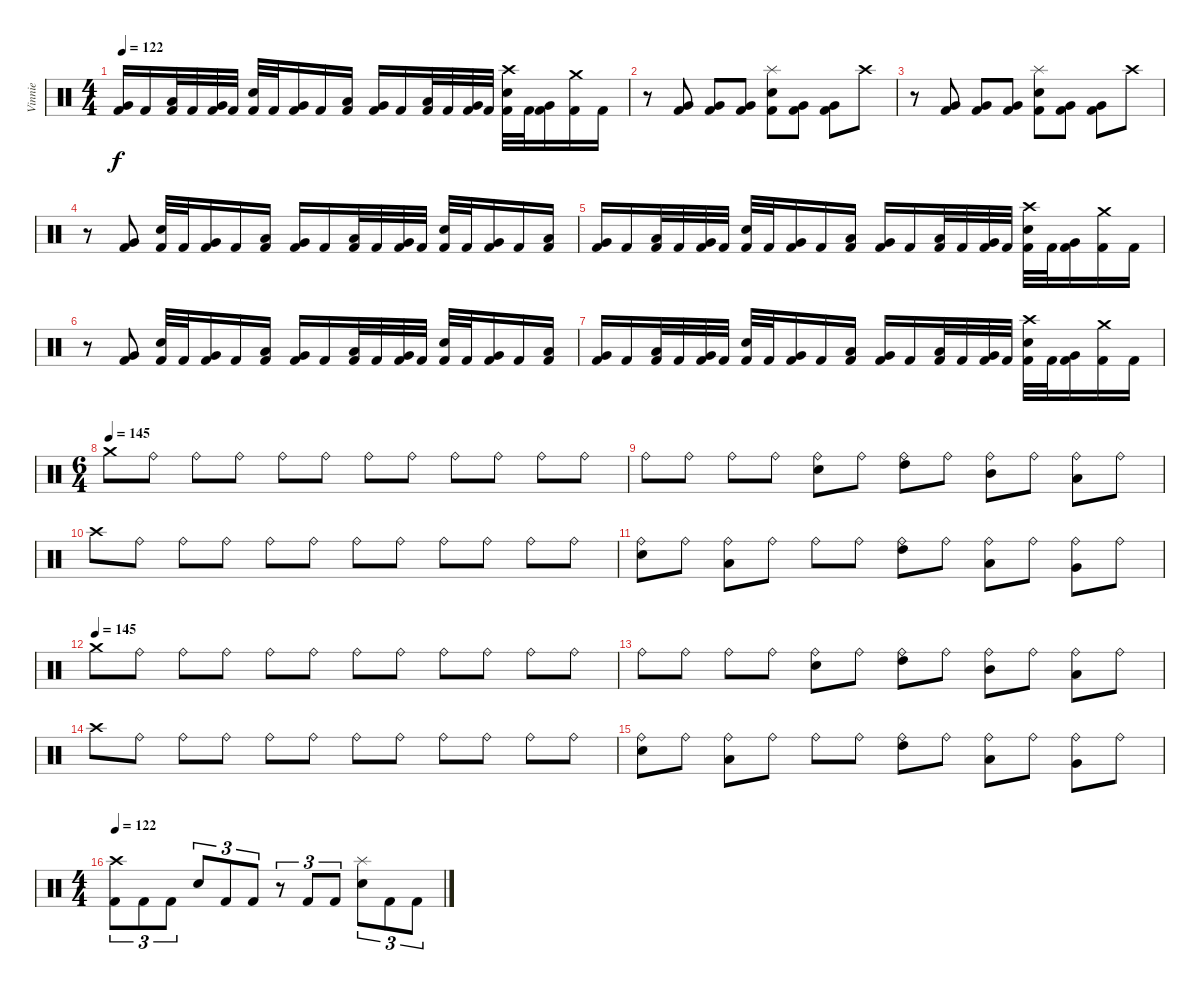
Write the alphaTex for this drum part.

\track ("Vinnie" "Vinnie") {instrument percussion}
\staff {score}
\articulation defaults
\ts (4 4)
\tempo 122
\clef neutral
\ks c
("Very Low Tom (hit)" "Kick (hit) 2").16{dy f} "Kick (hit) 2".16 ("Low Tom (hit)" "Kick (hit) 2").32 "Kick (hit) 2".32 ("Very Low Tom (hit)" "Kick (hit) 2").32 "Kick (hit) 2".32 ("Snare (hit) 2" "Kick (hit) 2").32 "Kick (hit) 2".32 ("Very Low Tom (hit)" "Kick (hit) 2").16 "Kick (hit) 2".16 ("Low Tom (hit)" "Kick (hit) 2").16 ("Very Low Tom (hit)" "Kick (hit) 2").16 "Kick (hit) 2".16 ("Low Tom (hit)" "Kick (hit) 2").32 "Kick (hit) 2".32 ("Very Low Tom (hit)" "Kick (hit) 2").32 "Kick (hit) 2".32 ("Crash high (hit)" "Snare (hit) 2" "Kick (hit) 2").32 "Kick (hit) 2".32 ("Very Low Tom (hit)" "Kick (hit) 2").16 ("Crash medium (hit)" "Kick (hit) 2").16 "Kick (hit) 2".16 |
r.8 ("Very Low Tom (hit)" "Kick (hit) 2").8 ("Very Low Tom (hit)" "Kick (hit) 2").8 ("Very Low Tom (hit)" "Kick (hit) 2").8 ("Splash (hit)" "Snare (hit) 2" "Kick (hit) 2").8 ("Very Low Tom (hit)" "Kick (hit) 2").8 ("Very Low Tom (hit)" "Kick (hit) 2").8 "Crash high (hit)".8 |
r.8 ("Very Low Tom (hit)" "Kick (hit) 2").8 ("Very Low Tom (hit)" "Kick (hit) 2").8 ("Very Low Tom (hit)" "Kick (hit) 2").8 ("Splash (hit)" "Snare (hit) 2" "Kick (hit) 2").8 ("Very Low Tom (hit)" "Kick (hit) 2").8 ("Very Low Tom (hit)" "Kick (hit) 2").8 "Crash high (hit)".8 |
r.8 ("Very Low Tom (hit)" "Kick (hit) 2").8 ("Snare (hit) 2" "Kick (hit) 2").32 "Kick (hit) 2".32 ("Very Low Tom (hit)" "Kick (hit) 2").16 "Kick (hit) 2".16 ("Low Tom (hit)" "Kick (hit) 2").16 ("Very Low Tom (hit)" "Kick (hit) 2").16 "Kick (hit) 2".16 ("Low Tom (hit)" "Kick (hit) 2").32 "Kick (hit) 2".32 ("Very Low Tom (hit)" "Kick (hit) 2").32 "Kick (hit) 2".32 ("Snare (hit) 2" "Kick (hit) 2").32 "Kick (hit) 2".32 ("Very Low Tom (hit)" "Kick (hit) 2").16 "Kick (hit) 2".16 ("Low Tom (hit)" "Kick (hit) 2").16 |
("Very Low Tom (hit)" "Kick (hit) 2").16 "Kick (hit) 2".16 ("Low Tom (hit)" "Kick (hit) 2").32 "Kick (hit) 2".32 ("Very Low Tom (hit)" "Kick (hit) 2").32 "Kick (hit) 2".32 ("Snare (hit) 2" "Kick (hit) 2").32 "Kick (hit) 2".32 ("Very Low Tom (hit)" "Kick (hit) 2").16 "Kick (hit) 2".16 ("Low Tom (hit)" "Kick (hit) 2").16 ("Very Low Tom (hit)" "Kick (hit) 2").16 "Kick (hit) 2".16 ("Low Tom (hit)" "Kick (hit) 2").32 "Kick (hit) 2".32 ("Very Low Tom (hit)" "Kick (hit) 2").32 "Kick (hit) 2".32 ("Crash high (hit)" "Snare (hit) 2" "Kick (hit) 2").32 "Kick (hit) 2".32 ("Very Low Tom (hit)" "Kick (hit) 2").16 ("Crash medium (hit)" "Kick (hit) 2").16 "Kick (hit) 2".16 |
r.8 ("Very Low Tom (hit)" "Kick (hit) 2").8 ("Snare (hit) 2" "Kick (hit) 2").32 "Kick (hit) 2".32 ("Very Low Tom (hit)" "Kick (hit) 2").16 "Kick (hit) 2".16 ("Low Tom (hit)" "Kick (hit) 2").16 ("Very Low Tom (hit)" "Kick (hit) 2").16 "Kick (hit) 2".16 ("Low Tom (hit)" "Kick (hit) 2").32 "Kick (hit) 2".32 ("Very Low Tom (hit)" "Kick (hit) 2").32 "Kick (hit) 2".32 ("Snare (hit) 2" "Kick (hit) 2").32 "Kick (hit) 2".32 ("Very Low Tom (hit)" "Kick (hit) 2").16 "Kick (hit) 2".16 ("Low Tom (hit)" "Kick (hit) 2").16 |
("Very Low Tom (hit)" "Kick (hit) 2").16 "Kick (hit) 2".16 ("Low Tom (hit)" "Kick (hit) 2").32 "Kick (hit) 2".32 ("Very Low Tom (hit)" "Kick (hit) 2").32 "Kick (hit) 2".32 ("Snare (hit) 2" "Kick (hit) 2").32 "Kick (hit) 2".32 ("Very Low Tom (hit)" "Kick (hit) 2").16 "Kick (hit) 2".16 ("Low Tom (hit)" "Kick (hit) 2").16 ("Very Low Tom (hit)" "Kick (hit) 2").16 "Kick (hit) 2".16 ("Low Tom (hit)" "Kick (hit) 2").32 "Kick (hit) 2".32 ("Very Low Tom (hit)" "Kick (hit) 2").32 "Kick (hit) 2".32 ("Crash high (hit)" "Snare (hit) 2" "Kick (hit) 2").32 "Kick (hit) 2".32 ("Very Low Tom (hit)" "Kick (hit) 2").16 ("Crash medium (hit)" "Kick (hit) 2").16 "Kick (hit) 2".16 |
\ts (6 4)
\tempo (145)
"Crash medium (hit)".8 "Ride (bell)".8 "Ride (bell)".8 "Ride (bell)".8 "Ride (bell)".8 "Ride (bell)".8 "Ride (bell)".8 "Ride (bell)".8 "Ride (bell)".8 "Ride (bell)".8 "Ride (bell)".8 "Ride (bell)".8 |
"Ride (bell)".8 "Ride (bell)".8 "Ride (bell)".8 "Ride (bell)".8 ("Ride (bell)" "Snare (hit) 2").8 "Ride (bell)".8 ("Ride (bell)" "High Tom (hit)").8 "Ride (bell)".8 ("Ride (bell)" "Mid Tom (hit)").8 "Ride (bell)".8 ("Ride (bell)" "Low Tom (hit)").8 "Ride (bell)".8 |
"Crash high (hit)".8 "Ride (bell)".8 "Ride (bell)".8 "Ride (bell)".8 "Ride (bell)".8 "Ride (bell)".8 "Ride (bell)".8 "Ride (bell)".8 "Ride (bell)".8 "Ride (bell)".8 "Ride (bell)".8 "Ride (bell)".8 |
("Ride (bell)" "Snare (hit) 2").8 "Ride (bell)".8 ("Ride (bell)" "Low Tom (hit)").8 "Ride (bell)".8 "Ride (bell)".8 "Ride (bell)".8 ("Ride (bell)" "High Tom (hit)").8 "Ride (bell)".8 ("Ride (bell)" "Low Tom (hit)").8 "Ride (bell)".8 ("Ride (bell)" "Very Low Tom (hit)").8 "Ride (bell)".8 |
\tempo (145)
"Crash medium (hit)".8 "Ride (bell)".8 "Ride (bell)".8 "Ride (bell)".8 "Ride (bell)".8 "Ride (bell)".8 "Ride (bell)".8 "Ride (bell)".8 "Ride (bell)".8 "Ride (bell)".8 "Ride (bell)".8 "Ride (bell)".8 |
"Ride (bell)".8 "Ride (bell)".8 "Ride (bell)".8 "Ride (bell)".8 ("Ride (bell)" "Snare (hit) 2").8 "Ride (bell)".8 ("Ride (bell)" "High Tom (hit)").8 "Ride (bell)".8 ("Ride (bell)" "Mid Tom (hit)").8 "Ride (bell)".8 ("Ride (bell)" "Low Tom (hit)").8 "Ride (bell)".8 |
"Crash high (hit)".8 "Ride (bell)".8 "Ride (bell)".8 "Ride (bell)".8 "Ride (bell)".8 "Ride (bell)".8 "Ride (bell)".8 "Ride (bell)".8 "Ride (bell)".8 "Ride (bell)".8 "Ride (bell)".8 "Ride (bell)".8 |
("Ride (bell)" "Snare (hit) 2").8 "Ride (bell)".8 ("Ride (bell)" "Low Tom (hit)").8 "Ride (bell)".8 "Ride (bell)".8 "Ride (bell)".8 ("Ride (bell)" "High Tom (hit)").8 "Ride (bell)".8 ("Ride (bell)" "Low Tom (hit)").8 "Ride (bell)".8 ("Ride (bell)" "Very Low Tom (hit)").8 "Ride (bell)".8 |
\ts (4 4)
\tempo 122
("Crash high (hit)" "Kick (hit) 2").8{tu (3 2)} "Kick (hit) 2".8{tu (3 2)} "Kick (hit) 2".8{tu (3 2)} "Snare (hit) 2".8{tu (3 2)} "Kick (hit) 2".8{tu (3 2)} "Kick (hit) 2".8{tu (3 2)} r.8{tu (3 2)} "Kick (hit) 2".8{tu (3 2)} "Kick (hit) 2".8{tu (3 2)} ("Splash (hit)" "Snare (hit) 2").8{tu (3 2)} "Kick (hit) 2".8{tu (3 2)} "Kick (hit) 2".8{tu (3 2)}
